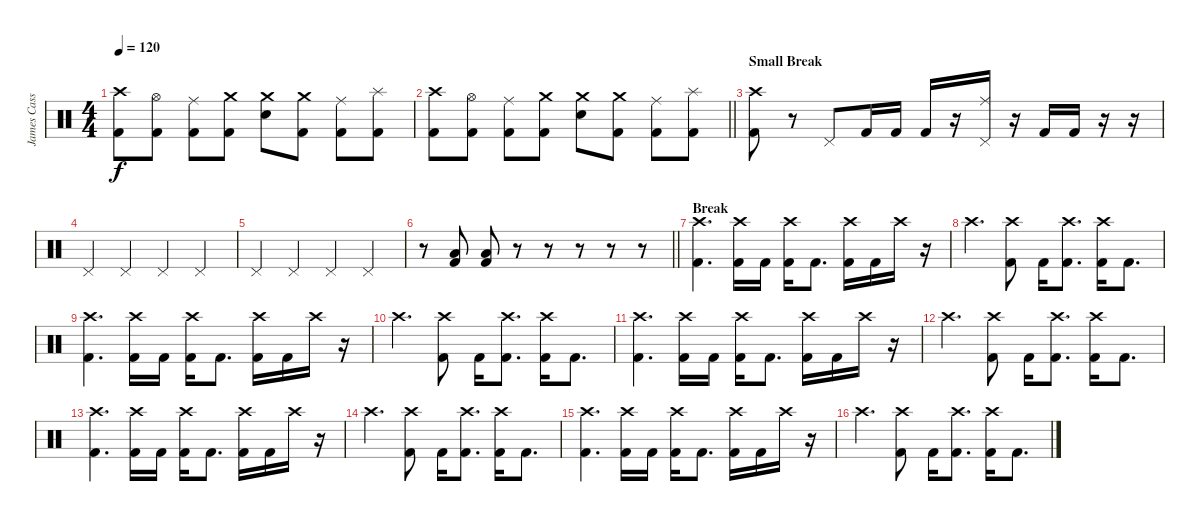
\track ("James Cassels" "James Cass") {instrument percussion}
\staff {score}
\articulation defaults
\ts (4 4)
\tempo 120
\clef neutral
\ks c
("Crash high (hit)" "Kick (hit) 2").8{dy f} ("Hi-Hat (open)" "Kick (hit) 2").8 ("Ride (middle)" "Kick (hit) 2").8 ("Crash medium (hit)" "Kick (hit) 2").8 ("Crash medium (hit)" "Electric Snare (hit)").8 ("Crash medium (hit)" "Kick (hit) 2").8 ("Ride (middle)" "Kick (hit) 2").8 ("Splash (hit)" "Kick (hit) 2").8 |
\barLineRight lightlight
("Crash high (hit)" "Kick (hit) 2").8 ("Hi-Hat (open)" "Kick (hit) 2").8 ("Ride (middle)" "Kick (hit) 2").8 ("Crash medium (hit)" "Kick (hit) 2").8 ("Crash medium (hit)" "Electric Snare (hit)").8 ("Crash medium (hit)" "Kick (hit) 2").8 ("Ride (middle)" "Kick (hit) 2").8 ("Splash (hit)" "Kick (hit) 2").8 |
\section ("" "Small Break")
("Crash high (hit)" "Kick (hit) 2").8 r.8 "Pedal Hi-Hat (hit)".8 "Kick (hit) 2".16 "Kick (hit) 2".16 "Kick (hit) 2".16 r.16 ("Pedal Hi-Hat (hit)" "Ride (middle)").16 r.16 "Kick (hit) 2".16 "Kick (hit) 2".16 r.16 r.16 |
"Pedal Hi-Hat (hit)".4 "Pedal Hi-Hat (hit)".4 "Pedal Hi-Hat (hit)".4 "Pedal Hi-Hat (hit)".4 |
"Pedal Hi-Hat (hit)".4 "Pedal Hi-Hat (hit)".4 "Pedal Hi-Hat (hit)".4 "Pedal Hi-Hat (hit)".4 |
\barLineRight lightlight
r.8 ("Low Floor Tom (hit)" "Kick (hit) 2").8 ("Low Floor Tom (hit)" "Kick (hit) 2").8 r.8 r.8 r.8 r.8 r.8 |
\section ("" "Break")
("Kick (hit) 2" "Crash high (hit)").4{d} ("Crash high (hit)" "Kick (hit) 2").16 "Kick (hit) 2".16 ("Crash high (hit)" "Kick (hit) 2").16 "Kick (hit) 2".8{d} ("Crash high (hit)" "Kick (hit) 2").16 "Kick (hit) 2".16 "Crash high (hit)".16 r.16 |
"Crash high (hit)".4{d} ("Crash high (hit)" "Kick (hit) 2").8 "Kick (hit) 2".16 ("Crash high (hit)" "Kick (hit) 2").8{d} ("Crash high (hit)" "Kick (hit) 2").16 "Kick (hit) 2".8{d} |
("Kick (hit) 2" "Crash high (hit)").4{d} ("Crash high (hit)" "Kick (hit) 2").16 "Kick (hit) 2".16 ("Crash high (hit)" "Kick (hit) 2").16 "Kick (hit) 2".8{d} ("Crash high (hit)" "Kick (hit) 2").16 "Kick (hit) 2".16 "Crash high (hit)".16 r.16 |
"Crash high (hit)".4{d} ("Crash high (hit)" "Kick (hit) 2").8 "Kick (hit) 2".16 ("Crash high (hit)" "Kick (hit) 2").8{d} ("Crash high (hit)" "Kick (hit) 2").16 "Kick (hit) 2".8{d} |
("Kick (hit) 2" "Crash high (hit)").4{d} ("Crash high (hit)" "Kick (hit) 2").16 "Kick (hit) 2".16 ("Crash high (hit)" "Kick (hit) 2").16 "Kick (hit) 2".8{d} ("Crash high (hit)" "Kick (hit) 2").16 "Kick (hit) 2".16 "Crash high (hit)".16 r.16 |
"Crash high (hit)".4{d} ("Crash high (hit)" "Kick (hit) 2").8 "Kick (hit) 2".16 ("Crash high (hit)" "Kick (hit) 2").8{d} ("Crash high (hit)" "Kick (hit) 2").16 "Kick (hit) 2".8{d} |
("Kick (hit) 2" "Crash high (hit)").4{d} ("Crash high (hit)" "Kick (hit) 2").16 "Kick (hit) 2".16 ("Crash high (hit)" "Kick (hit) 2").16 "Kick (hit) 2".8{d} ("Crash high (hit)" "Kick (hit) 2").16 "Kick (hit) 2".16 "Crash high (hit)".16 r.16 |
"Crash high (hit)".4{d} ("Crash high (hit)" "Kick (hit) 2").8 "Kick (hit) 2".16 ("Crash high (hit)" "Kick (hit) 2").8{d} ("Crash high (hit)" "Kick (hit) 2").16 "Kick (hit) 2".8{d} |
("Kick (hit) 2" "Crash high (hit)").4{d} ("Crash high (hit)" "Kick (hit) 2").16 "Kick (hit) 2".16 ("Crash high (hit)" "Kick (hit) 2").16 "Kick (hit) 2".8{d} ("Crash high (hit)" "Kick (hit) 2").16 "Kick (hit) 2".16 "Crash high (hit)".16 r.16 |
"Crash high (hit)".4{d} ("Crash high (hit)" "Kick (hit) 2").8 "Kick (hit) 2".16 ("Crash high (hit)" "Kick (hit) 2").8{d} ("Crash high (hit)" "Kick (hit) 2").16 "Kick (hit) 2".8{d}
